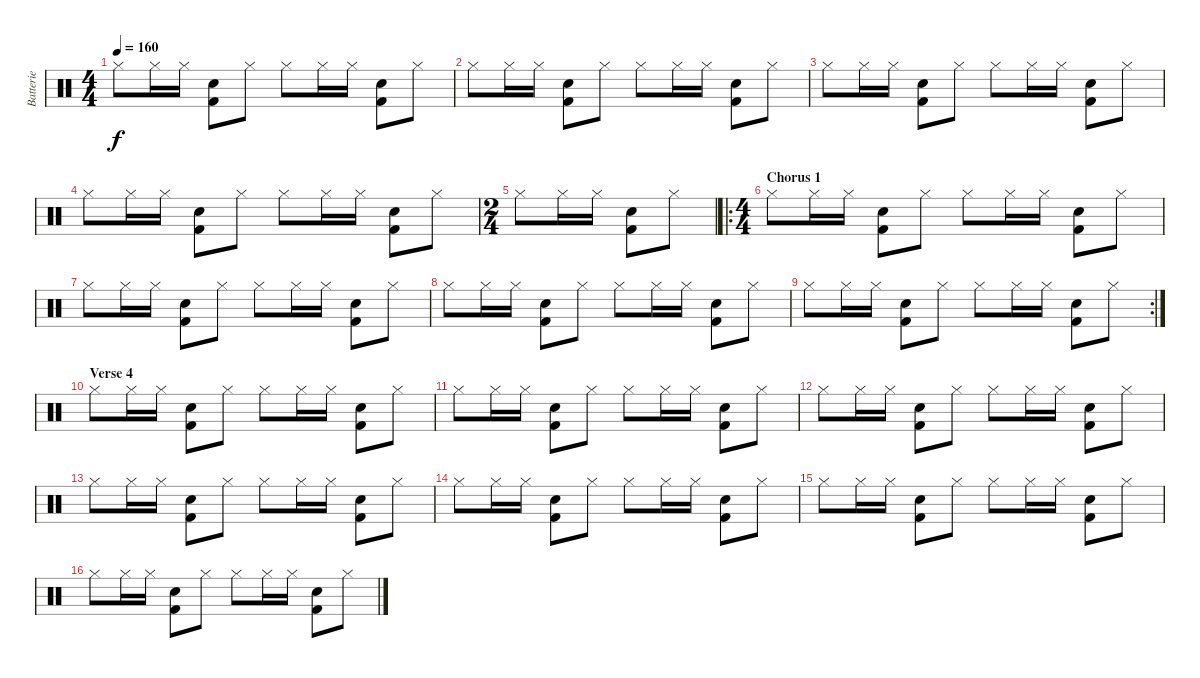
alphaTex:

\track ("Batterie" "Batterie") {instrument percussion}
\staff {score}
\articulation defaults
\ts (4 4)
\tempo 160
\clef neutral
\ks c "Hi-Hat (closed)".8{dy f} "Hi-Hat (closed)".16 "Hi-Hat (closed)".16
("Snare (hit) 2" "Kick (hit) 2").8 "Hi-Hat (closed)".8 "Hi-Hat (closed)".8 "Hi-Hat (closed)".16 "Hi-Hat (closed)".16 ("Snare (hit) 2" "Kick (hit) 2").8 "Hi-Hat (closed)".8 |
"Hi-Hat (closed)".8 "Hi-Hat (closed)".16 "Hi-Hat (closed)".16 ("Snare (hit) 2" "Kick (hit) 2").8 "Hi-Hat (closed)".8 "Hi-Hat (closed)".8 "Hi-Hat (closed)".16 "Hi-Hat (closed)".16 ("Snare (hit) 2" "Kick (hit) 2").8 "Hi-Hat (closed)".8 |
"Hi-Hat (closed)".8 "Hi-Hat (closed)".16 "Hi-Hat (closed)".16 ("Snare (hit) 2" "Kick (hit) 2").8 "Hi-Hat (closed)".8 "Hi-Hat (closed)".8 "Hi-Hat (closed)".16 "Hi-Hat (closed)".16 ("Snare (hit) 2" "Kick (hit) 2").8 "Hi-Hat (closed)".8 |
"Hi-Hat (closed)".8 "Hi-Hat (closed)".16 "Hi-Hat (closed)".16 ("Snare (hit) 2" "Kick (hit) 2").8 "Hi-Hat (closed)".8 "Hi-Hat (closed)".8 "Hi-Hat (closed)".16 "Hi-Hat (closed)".16 ("Snare (hit) 2" "Kick (hit) 2").8 "Hi-Hat (closed)".8 |
\ts (2 4)
"Hi-Hat (closed)".8 "Hi-Hat (closed)".16 "Hi-Hat (closed)".16 ("Snare (hit) 2" "Kick (hit) 2").8 "Hi-Hat (closed)".8 |
\ro
\ts (4 4)
\section ("" "Chorus 1")
"Hi-Hat (closed)".8 "Hi-Hat (closed)".16 "Hi-Hat (closed)".16 ("Snare (hit) 2" "Kick (hit) 2").8 "Hi-Hat (closed)".8 "Hi-Hat (closed)".8 "Hi-Hat (closed)".16 "Hi-Hat (closed)".16 ("Snare (hit) 2" "Kick (hit) 2").8 "Hi-Hat (closed)".8 |
"Hi-Hat (closed)".8 "Hi-Hat (closed)".16 "Hi-Hat (closed)".16 ("Snare (hit) 2" "Kick (hit) 2").8 "Hi-Hat (closed)".8 "Hi-Hat (closed)".8 "Hi-Hat (closed)".16 "Hi-Hat (closed)".16 ("Snare (hit) 2" "Kick (hit) 2").8 "Hi-Hat (closed)".8 |
"Hi-Hat (closed)".8 "Hi-Hat (closed)".16 "Hi-Hat (closed)".16 ("Snare (hit) 2" "Kick (hit) 2").8 "Hi-Hat (closed)".8 "Hi-Hat (closed)".8 "Hi-Hat (closed)".16 "Hi-Hat (closed)".16 ("Snare (hit) 2" "Kick (hit) 2").8 "Hi-Hat (closed)".8 |
\rc 2 "Hi-Hat (closed)".8 "Hi-Hat (closed)".16 "Hi-Hat (closed)".16
("Snare (hit) 2" "Kick (hit) 2").8 "Hi-Hat (closed)".8 "Hi-Hat (closed)".8 "Hi-Hat (closed)".16 "Hi-Hat (closed)".16 ("Snare (hit) 2" "Kick (hit) 2").8 "Hi-Hat (closed)".8 |
\section ("" "Verse 4")
"Hi-Hat (closed)".8 "Hi-Hat (closed)".16 "Hi-Hat (closed)".16 ("Snare (hit) 2" "Kick (hit) 2").8 "Hi-Hat (closed)".8 "Hi-Hat (closed)".8 "Hi-Hat (closed)".16 "Hi-Hat (closed)".16 ("Snare (hit) 2" "Kick (hit) 2").8 "Hi-Hat (closed)".8 |
"Hi-Hat (closed)".8 "Hi-Hat (closed)".16 "Hi-Hat (closed)".16 ("Snare (hit) 2" "Kick (hit) 2").8 "Hi-Hat (closed)".8 "Hi-Hat (closed)".8 "Hi-Hat (closed)".16 "Hi-Hat (closed)".16 ("Snare (hit) 2" "Kick (hit) 2").8 "Hi-Hat (closed)".8 |
"Hi-Hat (closed)".8 "Hi-Hat (closed)".16 "Hi-Hat (closed)".16 ("Snare (hit) 2" "Kick (hit) 2").8 "Hi-Hat (closed)".8 "Hi-Hat (closed)".8 "Hi-Hat (closed)".16 "Hi-Hat (closed)".16 ("Snare (hit) 2" "Kick (hit) 2").8 "Hi-Hat (closed)".8 |
"Hi-Hat (closed)".8 "Hi-Hat (closed)".16 "Hi-Hat (closed)".16 ("Snare (hit) 2" "Kick (hit) 2").8 "Hi-Hat (closed)".8 "Hi-Hat (closed)".8 "Hi-Hat (closed)".16 "Hi-Hat (closed)".16 ("Snare (hit) 2" "Kick (hit) 2").8 "Hi-Hat (closed)".8 |
"Hi-Hat (closed)".8 "Hi-Hat (closed)".16 "Hi-Hat (closed)".16 ("Snare (hit) 2" "Kick (hit) 2").8 "Hi-Hat (closed)".8 "Hi-Hat (closed)".8 "Hi-Hat (closed)".16 "Hi-Hat (closed)".16 ("Snare (hit) 2" "Kick (hit) 2").8 "Hi-Hat (closed)".8 |
"Hi-Hat (closed)".8 "Hi-Hat (closed)".16 "Hi-Hat (closed)".16 ("Snare (hit) 2" "Kick (hit) 2").8 "Hi-Hat (closed)".8 "Hi-Hat (closed)".8 "Hi-Hat (closed)".16 "Hi-Hat (closed)".16 ("Snare (hit) 2" "Kick (hit) 2").8 "Hi-Hat (closed)".8 |
"Hi-Hat (closed)".8 "Hi-Hat (closed)".16 "Hi-Hat (closed)".16 ("Snare (hit) 2" "Kick (hit) 2").8 "Hi-Hat (closed)".8 "Hi-Hat (closed)".8 "Hi-Hat (closed)".16 "Hi-Hat (closed)".16 ("Snare (hit) 2" "Kick (hit) 2").8 "Hi-Hat (closed)".8
